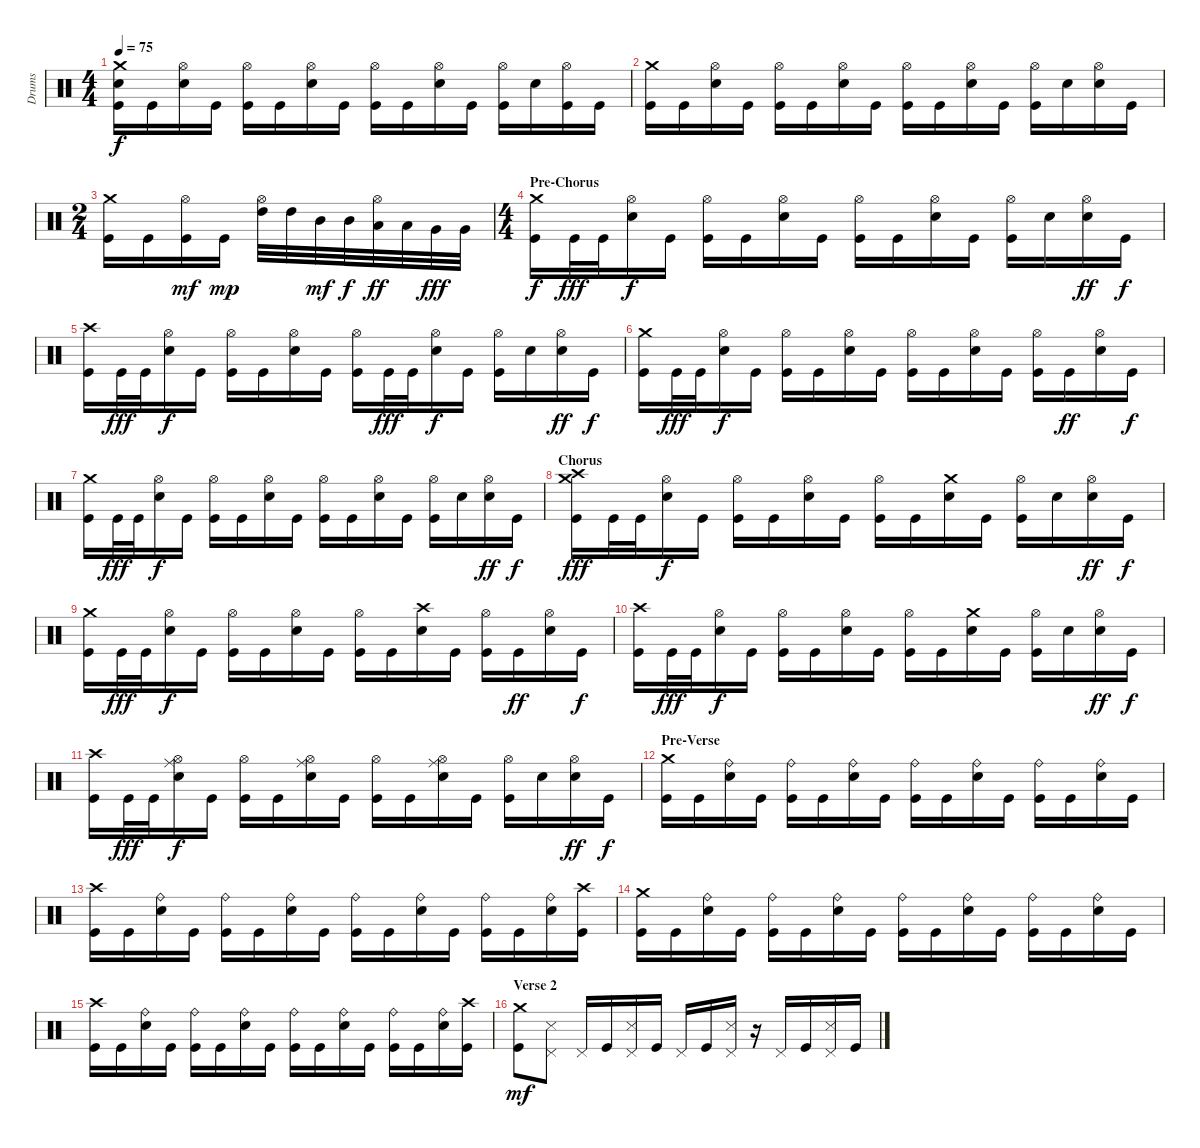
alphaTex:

\track ("Drums" "Drums") {instrument percussion}
\staff {score}
\articulation defaults
\ts (4 4)
\tempo 75
\clef neutral
\ks c
("Crash medium (hit)" "Electric Snare (hit)" "Kick (hit)").16{dy f} "Kick (hit)".16 ("Hi-Hat (open)" "Electric Snare (hit)").16 "Kick (hit)".16 ("Hi-Hat (open)" "Kick (hit)").16 "Kick (hit)".16 ("Hi-Hat (open)" "Electric Snare (hit)").16 "Kick (hit)".16 ("Hi-Hat (open)" "Kick (hit)").16 "Kick (hit)".16 ("Hi-Hat (open)" "Electric Snare (hit)").16 "Kick (hit)".16 ("Hi-Hat (open)" "Kick (hit)").16 "Electric Snare (hit)".16 ("Hi-Hat (open)" "Kick (hit)").16 "Kick (hit)".16 |
("Crash medium (hit)" "Kick (hit)").16 "Kick (hit)".16 ("Hi-Hat (open)" "Electric Snare (hit)").16 "Kick (hit)".16 ("Hi-Hat (open)" "Kick (hit)").16 "Kick (hit)".16 ("Hi-Hat (open)" "Electric Snare (hit)").16 "Kick (hit)".16 ("Hi-Hat (open)" "Kick (hit)").16 "Kick (hit)".16 ("Hi-Hat (open)" "Electric Snare (hit)").16 "Kick (hit)".16 ("Hi-Hat (open)" "Kick (hit)").16 "Electric Snare (hit)".16 ("Hi-Hat (open)" "Electric Snare (hit)").16 "Kick (hit)".16 |
\ts (2 4)
("Crash medium (hit)" "Kick (hit)").16 "Kick (hit)".16 ("Hi-Hat (open)" "Kick (hit)").16{dy mf} "Kick (hit)".16{dy mp} ("Hi-Hat (open)" "High Tom (hit)").32 "High Tom (hit)".32 "Mid Tom (hit)".32{dy mf} "Mid Tom (hit)".32{dy f} ("Hi-Hat (open)" "Low Tom (hit)").32{dy ff} "Low Tom (hit)".32 "Very Low Tom (hit)".32{dy fff} "Very Low Tom (hit)".32 |
\ts (4 4)
\section ("" "Pre-Chorus")
("Crash medium (hit)" "Kick (hit)").16{dy f} "Kick (hit)".32{dy fff} "Kick (hit)".32 ("Hi-Hat (open)" "Electric Snare (hit)").16{dy f} "Kick (hit)".16 ("Hi-Hat (open)" "Kick (hit)").16 "Kick (hit)".16 ("Hi-Hat (open)" "Electric Snare (hit)").16 "Kick (hit)".16 ("Hi-Hat (open)" "Kick (hit)").16 "Kick (hit)".16 ("Hi-Hat (open)" "Electric Snare (hit)").16 "Kick (hit)".16 ("Hi-Hat (open)" "Kick (hit)").16 "Electric Snare (hit)".16 ("Hi-Hat (open)" "Electric Snare (hit)").16{dy ff} "Kick (hit)".16{dy f} |
("Crash high (hit)" "Kick (hit)").16 "Kick (hit)".32{dy fff} "Kick (hit)".32 ("Hi-Hat (open)" "Electric Snare (hit)").16{dy f} "Kick (hit)".16 ("Hi-Hat (open)" "Kick (hit)").16 "Kick (hit)".16 ("Hi-Hat (open)" "Electric Snare (hit)").16 "Kick (hit)".16 ("Hi-Hat (open)" "Kick (hit)").16 "Kick (hit)".32{dy fff} "Kick (hit)".32 ("Hi-Hat (open)" "Electric Snare (hit)").16{dy f} "Kick (hit)".16 ("Hi-Hat (open)" "Kick (hit)").16 "Electric Snare (hit)".16 ("Hi-Hat (open)" "Electric Snare (hit)").16{dy ff} "Kick (hit)".16{dy f} |
("Crash medium (hit)" "Kick (hit)").16 "Kick (hit)".32{dy fff} "Kick (hit)".32 ("Hi-Hat (open)" "Electric Snare (hit)").16{dy f} "Kick (hit)".16 ("Hi-Hat (open)" "Kick (hit)").16 "Kick (hit)".16 ("Hi-Hat (open)" "Electric Snare (hit)").16 "Kick (hit)".16 ("Hi-Hat (open)" "Kick (hit)").16 "Kick (hit)".16 ("Hi-Hat (open)" "Electric Snare (hit)").16 "Kick (hit)".16 ("Hi-Hat (open)" "Kick (hit)").16 "Kick (hit)".16{dy ff} ("Hi-Hat (open)" "Electric Snare (hit)").16 "Kick (hit)".16{dy f} |
("Crash medium (hit)" "Kick (hit)").16 "Kick (hit)".32{dy fff} "Kick (hit)".32 ("Hi-Hat (open)" "Electric Snare (hit)").16{dy f} "Kick (hit)".16 ("Hi-Hat (open)" "Kick (hit)").16 "Kick (hit)".16 ("Hi-Hat (open)" "Electric Snare (hit)").16 "Kick (hit)".16 ("Hi-Hat (open)" "Kick (hit)").16 "Kick (hit)".16 ("Hi-Hat (open)" "Electric Snare (hit)").16 "Kick (hit)".16 ("Hi-Hat (open)" "Kick (hit)").16 "Electric Snare (hit)".16 ("Hi-Hat (open)" "Electric Snare (hit)").16{dy ff} "Kick (hit)".16{dy f} |
\section ("" "Chorus")
("Crash medium (hit)" "Crash high (hit)" "Kick (hit)").16{dy fff} "Kick (hit)".32 "Kick (hit)".32 ("Hi-Hat (open)" "Electric Snare (hit)").16{dy f} "Kick (hit)".16 ("Hi-Hat (open)" "Kick (hit)").16 "Kick (hit)".16 ("Hi-Hat (open)" "Electric Snare (hit)").16 "Kick (hit)".16 ("Hi-Hat (open)" "Kick (hit)").16 "Kick (hit)".16 ("Crash medium (hit)" "Electric Snare (hit)").16 "Kick (hit)".16 ("Hi-Hat (open)" "Kick (hit)").16 "Electric Snare (hit)".16 ("Hi-Hat (open)" "Electric Snare (hit)").16{dy ff} "Kick (hit)".16{dy f} |
("Crash medium (hit)" "Kick (hit)").16 "Kick (hit)".32{dy fff} "Kick (hit)".32 ("Hi-Hat (open)" "Electric Snare (hit)").16{dy f} "Kick (hit)".16 ("Hi-Hat (open)" "Kick (hit)").16 "Kick (hit)".16 ("Hi-Hat (open)" "Electric Snare (hit)").16 "Kick (hit)".16 ("Hi-Hat (open)" "Kick (hit)").16 "Kick (hit)".16 ("Crash high (hit)" "Electric Snare (hit)").16 "Kick (hit)".16 ("Hi-Hat (open)" "Kick (hit)").16 "Kick (hit)".16{dy ff} ("Hi-Hat (open)" "Electric Snare (hit)").16 "Kick (hit)".16{dy f} |
("Crash high (hit)" "Kick (hit)").16 "Kick (hit)".32{dy fff} "Kick (hit)".32 ("Hi-Hat (open)" "Electric Snare (hit)").16{dy f} "Kick (hit)".16 ("Hi-Hat (open)" "Kick (hit)").16 "Kick (hit)".16 ("Hi-Hat (open)" "Electric Snare (hit)").16 "Kick (hit)".16 ("Hi-Hat (open)" "Kick (hit)").16 "Kick (hit)".16 ("Crash medium (hit)" "Electric Snare (hit)").16 "Kick (hit)".16 ("Hi-Hat (open)" "Kick (hit)").16 "Electric Snare (hit)".16 ("Hi-Hat (open)" "Electric Snare (hit)").16{dy ff} "Kick (hit)".16{dy f} |
("Crash high (hit)" "Kick (hit)").16 "Kick (hit)".32{dy fff} "Kick (hit)".32 ("Hi-Hat (open)" "Ride (middle)" "Electric Snare (hit)").16{dy f} "Kick (hit)".16 ("Hi-Hat (open)" "Kick (hit)").16 "Kick (hit)".16 ("Hi-Hat (open)" "Ride (middle)" "Electric Snare (hit)").16 "Kick (hit)".16 ("Hi-Hat (open)" "Kick (hit)").16 "Kick (hit)".16 ("Hi-Hat (open)" "Ride (middle)" "Electric Snare (hit)").16 "Kick (hit)".16 ("Hi-Hat (open)" "Kick (hit)").16 "Electric Snare (hit)".16 ("Hi-Hat (open)" "Electric Snare (hit)").16{dy ff} "Kick (hit)".16{dy f} |
\section ("" "Pre-Verse")
("Crash medium (hit)" "Kick (hit)").16 "Kick (hit)".16 ("Ride (bell)" "Electric Snare (hit)").16 "Kick (hit)".16 ("Ride (bell)" "Kick (hit)").16 "Kick (hit)".16 ("Ride (bell)" "Electric Snare (hit)").16 "Kick (hit)".16 ("Ride (bell)" "Kick (hit)").16 "Kick (hit)".16 ("Ride (bell)" "Electric Snare (hit)").16 "Kick (hit)".16 ("Ride (bell)" "Kick (hit)").16 "Kick (hit)".16 ("Ride (bell)" "Electric Snare (hit)").16 "Kick (hit)".16 |
("Crash high (hit)" "Kick (hit)").16 "Kick (hit)".16 ("Ride (bell)" "Electric Snare (hit)").16 "Kick (hit)".16 ("Ride (bell)" "Kick (hit)").16 "Kick (hit)".16 ("Ride (bell)" "Electric Snare (hit)").16 "Kick (hit)".16 ("Ride (bell)" "Kick (hit)").16 "Kick (hit)".16 ("Ride (bell)" "Electric Snare (hit)").16 "Kick (hit)".16 ("Ride (bell)" "Kick (hit)").16 "Kick (hit)".16 ("Ride (bell)" "Electric Snare (hit)").16 ("Crash high (hit)" "Kick (hit)").16 |
("Crash medium (hit)" "Kick (hit)").16 "Kick (hit)".16 ("Ride (bell)" "Electric Snare (hit)").16 "Kick (hit)".16 ("Ride (bell)" "Kick (hit)").16 "Kick (hit)".16 ("Ride (bell)" "Electric Snare (hit)").16 "Kick (hit)".16 ("Ride (bell)" "Kick (hit)").16 "Kick (hit)".16 ("Ride (bell)" "Electric Snare (hit)").16 "Kick (hit)".16 ("Ride (bell)" "Kick (hit)").16 "Kick (hit)".16 ("Ride (bell)" "Electric Snare (hit)").16 "Kick (hit)".16 |
("Crash high (hit)" "Kick (hit)").16 "Kick (hit)".16 ("Ride (bell)" "Electric Snare (hit)").16 "Kick (hit)".16 ("Ride (bell)" "Kick (hit)").16 "Kick (hit)".16 ("Ride (bell)" "Electric Snare (hit)").16 "Kick (hit)".16 ("Ride (bell)" "Kick (hit)").16 "Kick (hit)".16 ("Ride (bell)" "Electric Snare (hit)").16 "Kick (hit)".16 ("Ride (bell)" "Kick (hit)").16 "Kick (hit)".16 ("Ride (bell)" "Electric Snare (hit)").16 ("Crash high (hit)" "Kick (hit)").16 |
\section ("" "Verse 2")
("Crash medium (hit)" "Kick (hit)").8{dy mf} ("Pedal Hi-Hat (hit)" "Snare (side stick) 3").8 "Pedal Hi-Hat (hit)".16 "Kick (hit)".16 ("Pedal Hi-Hat (hit)" "Snare (side stick) 3").16 "Kick (hit)".16 "Pedal Hi-Hat (hit)".16 "Kick (hit)".16 ("Pedal Hi-Hat (hit)" "Snare (side stick) 3").16 r.16 "Pedal Hi-Hat (hit)".16 "Kick (hit)".16 ("Pedal Hi-Hat (hit)" "Snare (side stick) 3").16 "Kick (hit)".16
